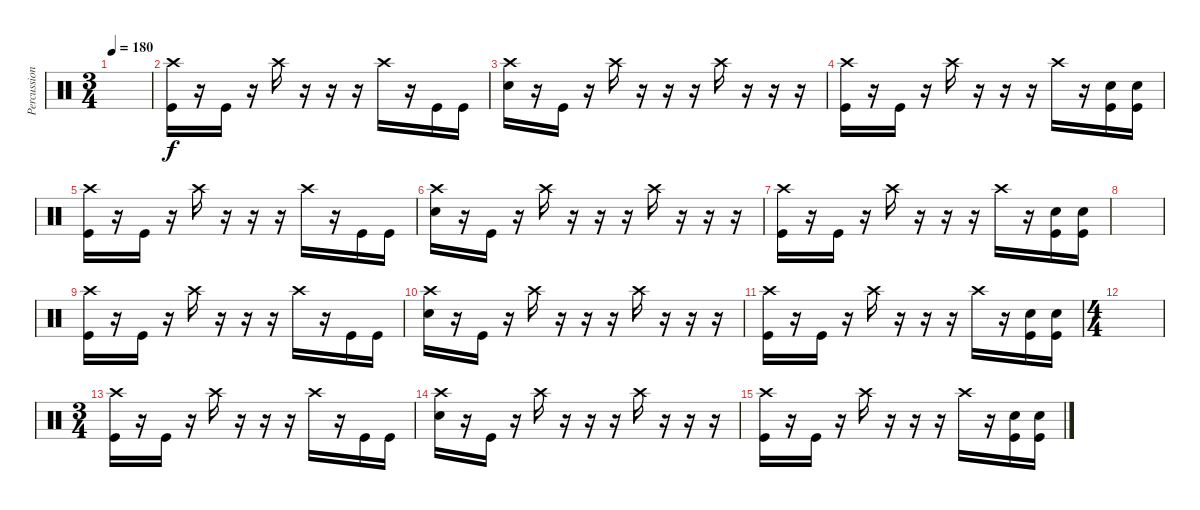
\track ("Percussion" "Percussion") {instrument percussion}
\staff {score}
\articulation defaults
\ts (3 4)
\tempo 180
\clef neutral
\ks c
|
("Crash high (hit)" "Kick (hit)").16 r.16 "Kick (hit)".16 r.16 "Crash high (hit)".16 r.16 r.16 r.16 "Crash high (hit)".16 r.16 "Kick (hit)".16 "Kick (hit)".16 |
("Crash high (hit)" "Electric Snare (hit)").16 r.16 "Kick (hit)".16 r.16 "Crash high (hit)".16 r.16 r.16 r.16 "Crash high (hit)".16 r.16 r.16 r.16 |
("Crash high (hit)" "Kick (hit)").16 r.16 "Kick (hit)".16 r.16 "Crash high (hit)".16 r.16 r.16 r.16 "Crash high (hit)".16 r.16 ("Electric Snare (hit)" "Kick (hit)").16 ("Electric Snare (hit)" "Kick (hit)").16 |
("Crash high (hit)" "Kick (hit)").16 r.16 "Kick (hit)".16 r.16 "Crash high (hit)".16 r.16 r.16 r.16 "Crash high (hit)".16 r.16 "Kick (hit)".16 "Kick (hit)".16 |
("Crash high (hit)" "Electric Snare (hit)").16 r.16 "Kick (hit)".16 r.16 "Crash high (hit)".16 r.16 r.16 r.16 "Crash high (hit)".16 r.16 r.16 r.16 |
("Crash high (hit)" "Kick (hit)").16 r.16 "Kick (hit)".16 r.16 "Crash high (hit)".16 r.16 r.16 r.16 "Crash high (hit)".16 r.16 ("Electric Snare (hit)" "Kick (hit)").16 ("Electric Snare (hit)" "Kick (hit)").16 |
|
("Crash high (hit)" "Kick (hit)").16 r.16 "Kick (hit)".16 r.16 "Crash high (hit)".16 r.16 r.16 r.16 "Crash high (hit)".16 r.16 "Kick (hit)".16 "Kick (hit)".16 |
("Crash high (hit)" "Electric Snare (hit)").16 r.16 "Kick (hit)".16 r.16 "Crash high (hit)".16 r.16 r.16 r.16 "Crash high (hit)".16 r.16 r.16 r.16 |
("Crash high (hit)" "Kick (hit)").16 r.16 "Kick (hit)".16 r.16 "Crash high (hit)".16 r.16 r.16 r.16 "Crash high (hit)".16 r.16 ("Electric Snare (hit)" "Kick (hit)").16 ("Electric Snare (hit)" "Kick (hit)").16 |
\ts (4 4)
|
\ts (3 4)
("Crash high (hit)" "Kick (hit)").16 r.16 "Kick (hit)".16 r.16 "Crash high (hit)".16 r.16 r.16 r.16 "Crash high (hit)".16 r.16 "Kick (hit)".16 "Kick (hit)".16 |
("Crash high (hit)" "Electric Snare (hit)").16 r.16 "Kick (hit)".16 r.16 "Crash high (hit)".16 r.16 r.16 r.16 "Crash high (hit)".16 r.16 r.16 r.16 |
("Crash high (hit)" "Kick (hit)").16 r.16 "Kick (hit)".16 r.16 "Crash high (hit)".16 r.16 r.16 r.16 "Crash high (hit)".16 r.16 ("Electric Snare (hit)" "Kick (hit)").16 ("Electric Snare (hit)" "Kick (hit)").16
